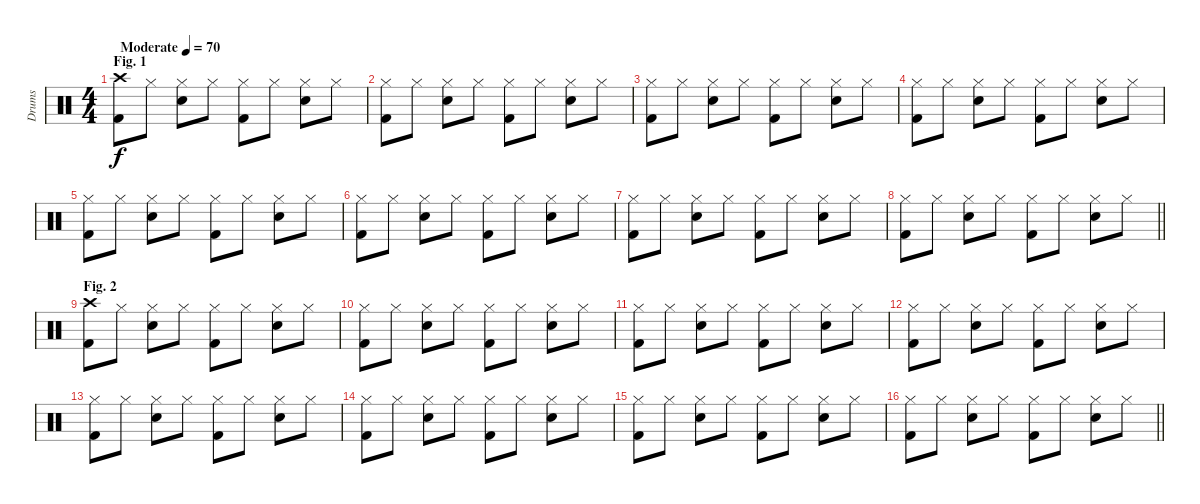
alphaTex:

\track ("Drums" "Drums") {instrument percussion}
\staff {score}
\articulation defaults
\ts (4 4)
\section ("" "Fig. 1")
\tempo (70 "Moderate")
\clef neutral
\ks c
("Crash high (hit)" "Kick (hit) 2").8{dy f} "Hi-Hat (closed)".8 ("Hi-Hat (closed)" "Snare (hit) 2").8 "Hi-Hat (closed)".8 ("Hi-Hat (closed)" "Kick (hit) 2").8 "Hi-Hat (closed)".8 ("Hi-Hat (closed)" "Snare (hit) 2").8 "Hi-Hat (closed)".8 |
("Hi-Hat (closed)" "Kick (hit) 2").8 "Hi-Hat (closed)".8 ("Hi-Hat (closed)" "Snare (hit) 2").8 "Hi-Hat (closed)".8 ("Hi-Hat (closed)" "Kick (hit) 2").8 "Hi-Hat (closed)".8 ("Hi-Hat (closed)" "Snare (hit) 2").8 "Hi-Hat (closed)".8 |
("Hi-Hat (closed)" "Kick (hit) 2").8 "Hi-Hat (closed)".8 ("Hi-Hat (closed)" "Snare (hit) 2").8 "Hi-Hat (closed)".8 ("Hi-Hat (closed)" "Kick (hit) 2").8 "Hi-Hat (closed)".8 ("Hi-Hat (closed)" "Snare (hit) 2").8 "Hi-Hat (closed)".8 |
("Hi-Hat (closed)" "Kick (hit) 2").8 "Hi-Hat (closed)".8 ("Hi-Hat (closed)" "Snare (hit) 2").8 "Hi-Hat (closed)".8 ("Hi-Hat (closed)" "Kick (hit) 2").8 "Hi-Hat (closed)".8 ("Hi-Hat (closed)" "Snare (hit) 2").8 "Hi-Hat (closed)".8 |
("Hi-Hat (closed)" "Kick (hit) 2").8 "Hi-Hat (closed)".8 ("Hi-Hat (closed)" "Snare (hit) 2").8 "Hi-Hat (closed)".8 ("Hi-Hat (closed)" "Kick (hit) 2").8 "Hi-Hat (closed)".8 ("Hi-Hat (closed)" "Snare (hit) 2").8 "Hi-Hat (closed)".8 |
("Hi-Hat (closed)" "Kick (hit) 2").8 "Hi-Hat (closed)".8 ("Hi-Hat (closed)" "Snare (hit) 2").8 "Hi-Hat (closed)".8 ("Hi-Hat (closed)" "Kick (hit) 2").8 "Hi-Hat (closed)".8 ("Hi-Hat (closed)" "Snare (hit) 2").8 "Hi-Hat (closed)".8 |
("Hi-Hat (closed)" "Kick (hit) 2").8 "Hi-Hat (closed)".8 ("Hi-Hat (closed)" "Snare (hit) 2").8 "Hi-Hat (closed)".8 ("Hi-Hat (closed)" "Kick (hit) 2").8 "Hi-Hat (closed)".8 ("Hi-Hat (closed)" "Snare (hit) 2").8 "Hi-Hat (closed)".8 |
\barLineRight lightlight
("Hi-Hat (closed)" "Kick (hit) 2").8 "Hi-Hat (closed)".8 ("Hi-Hat (closed)" "Snare (hit) 2").8 "Hi-Hat (closed)".8 ("Hi-Hat (closed)" "Kick (hit) 2").8 "Hi-Hat (closed)".8 ("Hi-Hat (closed)" "Snare (hit) 2").8 "Hi-Hat (closed)".8 |
\section ("" "Fig. 2")
("Crash high (hit)" "Kick (hit) 2").8 "Hi-Hat (closed)".8 ("Hi-Hat (closed)" "Snare (hit) 2").8 "Hi-Hat (closed)".8 ("Hi-Hat (closed)" "Kick (hit) 2").8 "Hi-Hat (closed)".8 ("Hi-Hat (closed)" "Snare (hit) 2").8 "Hi-Hat (closed)".8 |
("Hi-Hat (closed)" "Kick (hit) 2").8 "Hi-Hat (closed)".8 ("Hi-Hat (closed)" "Snare (hit) 2").8 "Hi-Hat (closed)".8 ("Hi-Hat (closed)" "Kick (hit) 2").8 "Hi-Hat (closed)".8 ("Hi-Hat (closed)" "Snare (hit) 2").8 "Hi-Hat (closed)".8 |
("Hi-Hat (closed)" "Kick (hit) 2").8 "Hi-Hat (closed)".8 ("Hi-Hat (closed)" "Snare (hit) 2").8 "Hi-Hat (closed)".8 ("Hi-Hat (closed)" "Kick (hit) 2").8 "Hi-Hat (closed)".8 ("Hi-Hat (closed)" "Snare (hit) 2").8 "Hi-Hat (closed)".8 |
("Hi-Hat (closed)" "Kick (hit) 2").8 "Hi-Hat (closed)".8 ("Hi-Hat (closed)" "Snare (hit) 2").8 "Hi-Hat (closed)".8 ("Hi-Hat (closed)" "Kick (hit) 2").8 "Hi-Hat (closed)".8 ("Hi-Hat (closed)" "Snare (hit) 2").8 "Hi-Hat (closed)".8 |
("Hi-Hat (closed)" "Kick (hit) 2").8 "Hi-Hat (closed)".8 ("Hi-Hat (closed)" "Snare (hit) 2").8 "Hi-Hat (closed)".8 ("Hi-Hat (closed)" "Kick (hit) 2").8 "Hi-Hat (closed)".8 ("Hi-Hat (closed)" "Snare (hit) 2").8 "Hi-Hat (closed)".8 |
("Hi-Hat (closed)" "Kick (hit) 2").8 "Hi-Hat (closed)".8 ("Hi-Hat (closed)" "Snare (hit) 2").8 "Hi-Hat (closed)".8 ("Hi-Hat (closed)" "Kick (hit) 2").8 "Hi-Hat (closed)".8 ("Hi-Hat (closed)" "Snare (hit) 2").8 "Hi-Hat (closed)".8 |
("Hi-Hat (closed)" "Kick (hit) 2").8 "Hi-Hat (closed)".8 ("Hi-Hat (closed)" "Snare (hit) 2").8 "Hi-Hat (closed)".8 ("Hi-Hat (closed)" "Kick (hit) 2").8 "Hi-Hat (closed)".8 ("Hi-Hat (closed)" "Snare (hit) 2").8 "Hi-Hat (closed)".8 |
\barLineRight lightlight
("Hi-Hat (closed)" "Kick (hit) 2").8 "Hi-Hat (closed)".8 ("Hi-Hat (closed)" "Snare (hit) 2").8 "Hi-Hat (closed)".8 ("Hi-Hat (closed)" "Kick (hit) 2").8 "Hi-Hat (closed)".8 ("Hi-Hat (closed)" "Snare (hit) 2").8 "Hi-Hat (closed)".8
